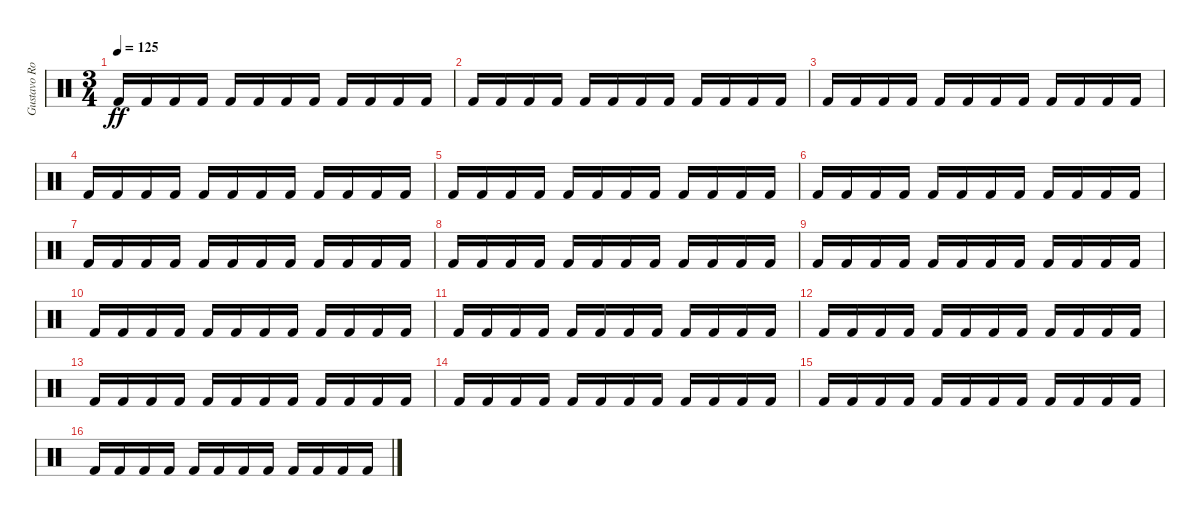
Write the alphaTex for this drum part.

\track ("Gustavo Rowek 1" "Gustavo Ro") {instrument percussion}
\staff {score}
\articulation defaults
\ts (3 4)
\tempo 125
\clef neutral
\ks c "Kick (hit) 2".16{dy ff} "Kick (hit) 2".16 "Kick (hit) 2".16 "Kick (hit) 2".16 "Kick (hit) 2".16 "Kick (hit) 2".16 "Kick (hit) 2".16 "Kick (hit) 2".16 "Kick (hit) 2".16 "Kick (hit) 2".16 "Kick (hit) 2".16 "Kick (hit) 2".16
|
"Kick (hit) 2".16 "Kick (hit) 2".16 "Kick (hit) 2".16 "Kick (hit) 2".16 "Kick (hit) 2".16 "Kick (hit) 2".16 "Kick (hit) 2".16 "Kick (hit) 2".16 "Kick (hit) 2".16 "Kick (hit) 2".16 "Kick (hit) 2".16 "Kick (hit) 2".16 |
"Kick (hit) 2".16 "Kick (hit) 2".16 "Kick (hit) 2".16 "Kick (hit) 2".16 "Kick (hit) 2".16 "Kick (hit) 2".16 "Kick (hit) 2".16 "Kick (hit) 2".16 "Kick (hit) 2".16 "Kick (hit) 2".16 "Kick (hit) 2".16 "Kick (hit) 2".16 |
"Kick (hit) 2".16 "Kick (hit) 2".16 "Kick (hit) 2".16 "Kick (hit) 2".16 "Kick (hit) 2".16 "Kick (hit) 2".16 "Kick (hit) 2".16 "Kick (hit) 2".16 "Kick (hit) 2".16 "Kick (hit) 2".16 "Kick (hit) 2".16 "Kick (hit) 2".16 |
"Kick (hit) 2".16 "Kick (hit) 2".16 "Kick (hit) 2".16 "Kick (hit) 2".16 "Kick (hit) 2".16 "Kick (hit) 2".16 "Kick (hit) 2".16 "Kick (hit) 2".16 "Kick (hit) 2".16 "Kick (hit) 2".16 "Kick (hit) 2".16 "Kick (hit) 2".16 |
"Kick (hit) 2".16 "Kick (hit) 2".16 "Kick (hit) 2".16 "Kick (hit) 2".16 "Kick (hit) 2".16 "Kick (hit) 2".16 "Kick (hit) 2".16 "Kick (hit) 2".16 "Kick (hit) 2".16 "Kick (hit) 2".16 "Kick (hit) 2".16 "Kick (hit) 2".16 |
"Kick (hit) 2".16 "Kick (hit) 2".16 "Kick (hit) 2".16 "Kick (hit) 2".16 "Kick (hit) 2".16 "Kick (hit) 2".16 "Kick (hit) 2".16 "Kick (hit) 2".16 "Kick (hit) 2".16 "Kick (hit) 2".16 "Kick (hit) 2".16 "Kick (hit) 2".16 |
"Kick (hit) 2".16 "Kick (hit) 2".16 "Kick (hit) 2".16 "Kick (hit) 2".16 "Kick (hit) 2".16 "Kick (hit) 2".16 "Kick (hit) 2".16 "Kick (hit) 2".16 "Kick (hit) 2".16 "Kick (hit) 2".16 "Kick (hit) 2".16 "Kick (hit) 2".16 |
"Kick (hit) 2".16 "Kick (hit) 2".16 "Kick (hit) 2".16 "Kick (hit) 2".16 "Kick (hit) 2".16 "Kick (hit) 2".16 "Kick (hit) 2".16 "Kick (hit) 2".16 "Kick (hit) 2".16 "Kick (hit) 2".16 "Kick (hit) 2".16 "Kick (hit) 2".16 |
"Kick (hit) 2".16 "Kick (hit) 2".16 "Kick (hit) 2".16 "Kick (hit) 2".16 "Kick (hit) 2".16 "Kick (hit) 2".16 "Kick (hit) 2".16 "Kick (hit) 2".16 "Kick (hit) 2".16 "Kick (hit) 2".16 "Kick (hit) 2".16 "Kick (hit) 2".16 |
"Kick (hit) 2".16 "Kick (hit) 2".16 "Kick (hit) 2".16 "Kick (hit) 2".16 "Kick (hit) 2".16 "Kick (hit) 2".16 "Kick (hit) 2".16 "Kick (hit) 2".16 "Kick (hit) 2".16 "Kick (hit) 2".16 "Kick (hit) 2".16 "Kick (hit) 2".16 |
"Kick (hit) 2".16 "Kick (hit) 2".16 "Kick (hit) 2".16 "Kick (hit) 2".16 "Kick (hit) 2".16 "Kick (hit) 2".16 "Kick (hit) 2".16 "Kick (hit) 2".16 "Kick (hit) 2".16 "Kick (hit) 2".16 "Kick (hit) 2".16 "Kick (hit) 2".16 |
"Kick (hit) 2".16 "Kick (hit) 2".16 "Kick (hit) 2".16 "Kick (hit) 2".16 "Kick (hit) 2".16 "Kick (hit) 2".16 "Kick (hit) 2".16 "Kick (hit) 2".16 "Kick (hit) 2".16 "Kick (hit) 2".16 "Kick (hit) 2".16 "Kick (hit) 2".16 |
"Kick (hit) 2".16 "Kick (hit) 2".16 "Kick (hit) 2".16 "Kick (hit) 2".16 "Kick (hit) 2".16 "Kick (hit) 2".16 "Kick (hit) 2".16 "Kick (hit) 2".16 "Kick (hit) 2".16 "Kick (hit) 2".16 "Kick (hit) 2".16 "Kick (hit) 2".16 |
"Kick (hit) 2".16 "Kick (hit) 2".16 "Kick (hit) 2".16 "Kick (hit) 2".16 "Kick (hit) 2".16 "Kick (hit) 2".16 "Kick (hit) 2".16 "Kick (hit) 2".16 "Kick (hit) 2".16 "Kick (hit) 2".16 "Kick (hit) 2".16 "Kick (hit) 2".16 |
"Kick (hit) 2".16 "Kick (hit) 2".16 "Kick (hit) 2".16 "Kick (hit) 2".16 "Kick (hit) 2".16 "Kick (hit) 2".16 "Kick (hit) 2".16 "Kick (hit) 2".16 "Kick (hit) 2".16 "Kick (hit) 2".16 "Kick (hit) 2".16 "Kick (hit) 2".16
